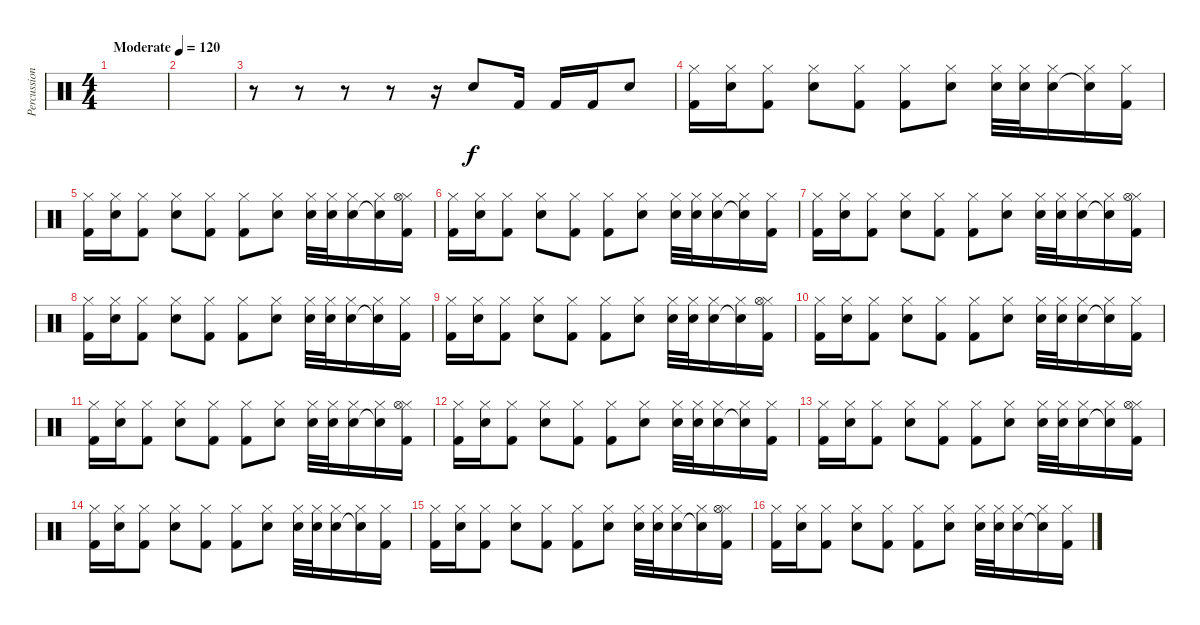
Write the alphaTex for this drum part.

\track ("Percussions" "Percussion") {instrument percussion}
\staff {score}
\articulation defaults
\ts (4 4)
\tempo (120 "Moderate")
\clef neutral
\ks c
|
|
r.8 r.8 r.8 r.8 r.16 "Snare (hit) 2".8 "Kick (hit) 2".16 "Kick (hit) 2".16 "Kick (hit) 2".16 "Electric Snare (hit)".8 |
("Hi-Hat (closed)" "Kick (hit) 2").16 ("Hi-Hat (closed)" "Snare (hit) 2").16 ("Hi-Hat (closed)" "Kick (hit) 2").8 ("Hi-Hat (closed)" "Electric Snare (hit)").8 ("Hi-Hat (closed)" "Kick (hit) 2").8 ("Hi-Hat (closed)" "Kick (hit) 2").8 ("Hi-Hat (closed)" "Snare (hit) 2").8 ("Hi-Hat (closed)" "Snare (hit) 2").32 ("Hi-Hat (closed)" "Electric Snare (hit)").32 ("Hi-Hat (closed)" "Snare (hit) 2").16 ("Hi-Hat (closed)" "Snare (hit)"{t}).16 ("Hi-Hat (closed)" "Kick (hit) 2").16 |
("Hi-Hat (closed)" "Kick (hit) 2").16 ("Hi-Hat (closed)" "Snare (hit) 2").16 ("Hi-Hat (closed)" "Kick (hit) 2").8 ("Hi-Hat (closed)" "Electric Snare (hit)").8 ("Hi-Hat (closed)" "Kick (hit) 2").8 ("Hi-Hat (closed)" "Kick (hit) 2").8 ("Hi-Hat (closed)" "Snare (hit) 2").8 ("Hi-Hat (closed)" "Snare (hit) 2").32 ("Hi-Hat (closed)" "Electric Snare (hit)").32 ("Hi-Hat (closed)" "Snare (hit) 2").16 ("Hi-Hat (closed)" "Snare (hit)"{t}).16 ("Hi-Hat (closed)" "Hi-Hat (open)" "Kick (hit) 2").16 |
("Hi-Hat (closed)" "Kick (hit) 2").16 ("Hi-Hat (closed)" "Snare (hit) 2").16 ("Hi-Hat (closed)" "Kick (hit) 2").8 ("Hi-Hat (closed)" "Electric Snare (hit)").8 ("Hi-Hat (closed)" "Kick (hit) 2").8 ("Hi-Hat (closed)" "Kick (hit) 2").8 ("Hi-Hat (closed)" "Snare (hit) 2").8 ("Hi-Hat (closed)" "Snare (hit) 2").32 ("Hi-Hat (closed)" "Electric Snare (hit)").32 ("Hi-Hat (closed)" "Snare (hit) 2").16 ("Hi-Hat (closed)" "Snare (hit)"{t}).16 ("Hi-Hat (closed)" "Kick (hit) 2").16 |
("Hi-Hat (closed)" "Kick (hit) 2").16 ("Hi-Hat (closed)" "Snare (hit) 2").16 ("Hi-Hat (closed)" "Kick (hit) 2").8 ("Hi-Hat (closed)" "Electric Snare (hit)").8 ("Hi-Hat (closed)" "Kick (hit) 2").8 ("Hi-Hat (closed)" "Kick (hit) 2").8 ("Hi-Hat (closed)" "Snare (hit) 2").8 ("Hi-Hat (closed)" "Snare (hit) 2").32 ("Hi-Hat (closed)" "Electric Snare (hit)").32 ("Hi-Hat (closed)" "Snare (hit) 2").16 ("Hi-Hat (closed)" "Snare (hit)"{t}).16 ("Hi-Hat (closed)" "Hi-Hat (open)" "Kick (hit) 2").16 |
("Hi-Hat (closed)" "Kick (hit) 2").16 ("Hi-Hat (closed)" "Snare (hit) 2").16 ("Hi-Hat (closed)" "Kick (hit) 2").8 ("Hi-Hat (closed)" "Electric Snare (hit)").8 ("Hi-Hat (closed)" "Kick (hit) 2").8 ("Hi-Hat (closed)" "Kick (hit) 2").8 ("Hi-Hat (closed)" "Snare (hit) 2").8 ("Hi-Hat (closed)" "Snare (hit) 2").32 ("Hi-Hat (closed)" "Electric Snare (hit)").32 ("Hi-Hat (closed)" "Snare (hit) 2").16 ("Hi-Hat (closed)" "Snare (hit)"{t}).16 ("Hi-Hat (closed)" "Kick (hit) 2").16 |
("Hi-Hat (closed)" "Kick (hit) 2").16 ("Hi-Hat (closed)" "Snare (hit) 2").16 ("Hi-Hat (closed)" "Kick (hit) 2").8 ("Hi-Hat (closed)" "Electric Snare (hit)").8 ("Hi-Hat (closed)" "Kick (hit) 2").8 ("Hi-Hat (closed)" "Kick (hit) 2").8 ("Hi-Hat (closed)" "Snare (hit) 2").8 ("Hi-Hat (closed)" "Snare (hit) 2").32 ("Hi-Hat (closed)" "Electric Snare (hit)").32 ("Hi-Hat (closed)" "Snare (hit) 2").16 ("Hi-Hat (closed)" "Snare (hit)"{t}).16 ("Hi-Hat (closed)" "Hi-Hat (open)" "Kick (hit) 2").16 |
("Hi-Hat (closed)" "Kick (hit) 2").16 ("Hi-Hat (closed)" "Snare (hit) 2").16 ("Hi-Hat (closed)" "Kick (hit) 2").8 ("Hi-Hat (closed)" "Electric Snare (hit)").8 ("Hi-Hat (closed)" "Kick (hit) 2").8 ("Hi-Hat (closed)" "Kick (hit) 2").8 ("Hi-Hat (closed)" "Snare (hit) 2").8 ("Hi-Hat (closed)" "Snare (hit) 2").32 ("Hi-Hat (closed)" "Electric Snare (hit)").32 ("Hi-Hat (closed)" "Snare (hit) 2").16 ("Hi-Hat (closed)" "Snare (hit)"{t}).16 ("Hi-Hat (closed)" "Kick (hit) 2").16 |
("Hi-Hat (closed)" "Kick (hit) 2").16 ("Hi-Hat (closed)" "Snare (hit) 2").16 ("Hi-Hat (closed)" "Kick (hit) 2").8 ("Hi-Hat (closed)" "Electric Snare (hit)").8 ("Hi-Hat (closed)" "Kick (hit) 2").8 ("Hi-Hat (closed)" "Kick (hit) 2").8 ("Hi-Hat (closed)" "Snare (hit) 2").8 ("Hi-Hat (closed)" "Snare (hit) 2").32 ("Hi-Hat (closed)" "Electric Snare (hit)").32 ("Hi-Hat (closed)" "Snare (hit) 2").16 ("Hi-Hat (closed)" "Snare (hit)"{t}).16 ("Hi-Hat (closed)" "Hi-Hat (open)" "Kick (hit) 2").16 |
("Hi-Hat (closed)" "Kick (hit) 2").16 ("Hi-Hat (closed)" "Snare (hit) 2").16 ("Hi-Hat (closed)" "Kick (hit) 2").8 ("Hi-Hat (closed)" "Electric Snare (hit)").8 ("Hi-Hat (closed)" "Kick (hit) 2").8 ("Hi-Hat (closed)" "Kick (hit) 2").8 ("Hi-Hat (closed)" "Snare (hit) 2").8 ("Hi-Hat (closed)" "Snare (hit) 2").32 ("Hi-Hat (closed)" "Electric Snare (hit)").32 ("Hi-Hat (closed)" "Snare (hit) 2").16 ("Hi-Hat (closed)" "Snare (hit)"{t}).16 ("Hi-Hat (closed)" "Kick (hit) 2").16 |
("Hi-Hat (closed)" "Kick (hit) 2").16 ("Hi-Hat (closed)" "Snare (hit) 2").16 ("Hi-Hat (closed)" "Kick (hit) 2").8 ("Hi-Hat (closed)" "Electric Snare (hit)").8 ("Hi-Hat (closed)" "Kick (hit) 2").8 ("Hi-Hat (closed)" "Kick (hit) 2").8 ("Hi-Hat (closed)" "Snare (hit) 2").8 ("Hi-Hat (closed)" "Snare (hit) 2").32 ("Hi-Hat (closed)" "Electric Snare (hit)").32 ("Hi-Hat (closed)" "Snare (hit) 2").16 ("Hi-Hat (closed)" "Snare (hit)"{t}).16 ("Hi-Hat (closed)" "Hi-Hat (open)" "Kick (hit) 2").16 |
("Hi-Hat (closed)" "Kick (hit) 2").16 ("Hi-Hat (closed)" "Snare (hit) 2").16 ("Hi-Hat (closed)" "Kick (hit) 2").8 ("Hi-Hat (closed)" "Electric Snare (hit)").8 ("Hi-Hat (closed)" "Kick (hit) 2").8 ("Hi-Hat (closed)" "Kick (hit) 2").8 ("Hi-Hat (closed)" "Snare (hit) 2").8 ("Hi-Hat (closed)" "Snare (hit) 2").32 ("Hi-Hat (closed)" "Electric Snare (hit)").32 ("Hi-Hat (closed)" "Snare (hit) 2").16 ("Hi-Hat (closed)" "Snare (hit)"{t}).16 ("Hi-Hat (closed)" "Kick (hit) 2").16 |
("Hi-Hat (closed)" "Kick (hit) 2").16 ("Hi-Hat (closed)" "Snare (hit) 2").16 ("Hi-Hat (closed)" "Kick (hit) 2").8 ("Hi-Hat (closed)" "Electric Snare (hit)").8 ("Hi-Hat (closed)" "Kick (hit) 2").8 ("Hi-Hat (closed)" "Kick (hit) 2").8 ("Hi-Hat (closed)" "Snare (hit) 2").8 ("Hi-Hat (closed)" "Snare (hit) 2").32 ("Hi-Hat (closed)" "Electric Snare (hit)").32 ("Hi-Hat (closed)" "Snare (hit) 2").16 ("Hi-Hat (closed)" "Snare (hit)"{t}).16 ("Hi-Hat (closed)" "Hi-Hat (open)" "Kick (hit) 2").16 |
("Hi-Hat (closed)" "Kick (hit) 2").16 ("Hi-Hat (closed)" "Snare (hit) 2").16 ("Hi-Hat (closed)" "Kick (hit) 2").8 ("Hi-Hat (closed)" "Electric Snare (hit)").8 ("Hi-Hat (closed)" "Kick (hit) 2").8 ("Hi-Hat (closed)" "Kick (hit) 2").8 ("Hi-Hat (closed)" "Snare (hit) 2").8 ("Hi-Hat (closed)" "Snare (hit) 2").32 ("Hi-Hat (closed)" "Electric Snare (hit)").32 ("Hi-Hat (closed)" "Snare (hit) 2").16 ("Hi-Hat (closed)" "Snare (hit)"{t}).16 ("Hi-Hat (closed)" "Kick (hit) 2").16
